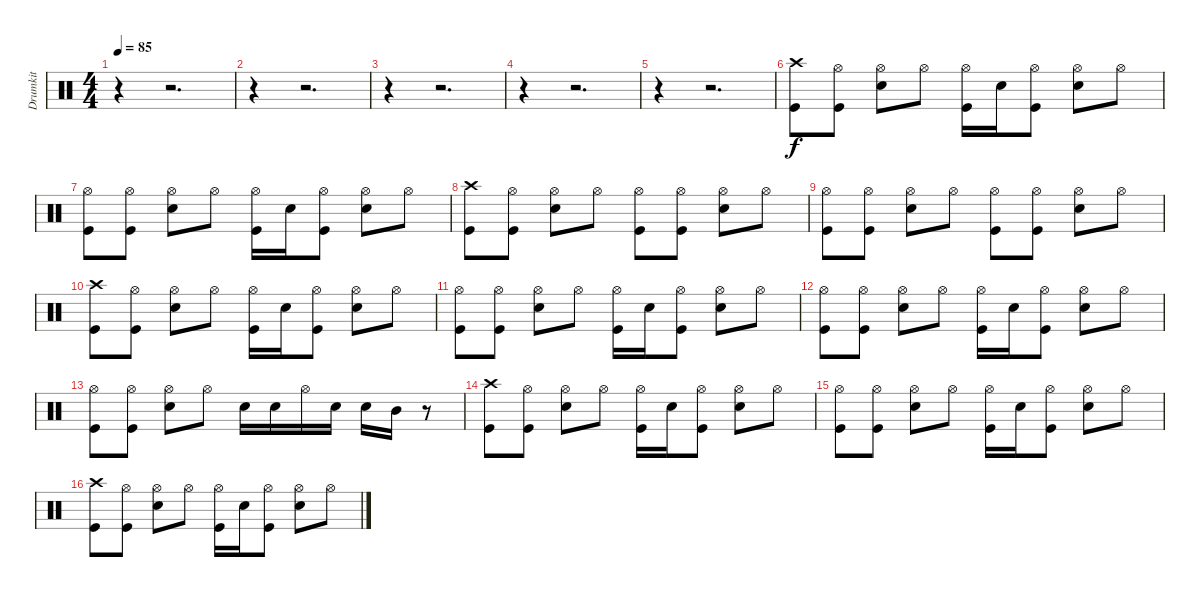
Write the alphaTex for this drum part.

\track ("Drumkit" "Drumkit") {instrument percussion}
\staff {score}
\articulation defaults
\ts (4 4)
\tempo 85
\clef neutral
\ks c
r.4{dy f} r.2{d} |
r.4 r.2{d} |
r.4 r.2{d} |
r.4 r.2{d} |
r.4 r.2{d} |
("Crash high (hit)" "Kick (hit)").8 ("Hi-Hat (open)" "Kick (hit)").8 ("Hi-Hat (open)" "Snare (hit) 2").8 "Hi-Hat (open)".8 ("Hi-Hat (open)" "Kick (hit)").16 "Snare (hit) 2".16 ("Hi-Hat (open)" "Kick (hit)").8 ("Hi-Hat (open)" "Snare (hit) 2").8 "Hi-Hat (open)".8 |
("Hi-Hat (open)" "Kick (hit)").8 ("Hi-Hat (open)" "Kick (hit)").8 ("Hi-Hat (open)" "Snare (hit) 2").8 "Hi-Hat (open)".8 ("Hi-Hat (open)" "Kick (hit)").16 "Snare (hit) 2".16 ("Hi-Hat (open)" "Kick (hit)").8 ("Hi-Hat (open)" "Snare (hit) 2").8 "Hi-Hat (open)".8 |
("Crash high (hit)" "Kick (hit)").8 ("Hi-Hat (open)" "Kick (hit)").8 ("Hi-Hat (open)" "Snare (hit) 2").8 "Hi-Hat (open)".8 ("Hi-Hat (open)" "Kick (hit)").8 ("Hi-Hat (open)" "Kick (hit)").8 ("Hi-Hat (open)" "Snare (hit) 2").8 "Hi-Hat (open)".8 |
("Hi-Hat (open)" "Kick (hit)").8 ("Hi-Hat (open)" "Kick (hit)").8 ("Hi-Hat (open)" "Snare (hit) 2").8 "Hi-Hat (open)".8 ("Hi-Hat (open)" "Kick (hit)").8 ("Hi-Hat (open)" "Kick (hit)").8 ("Hi-Hat (open)" "Snare (hit) 2").8 "Hi-Hat (open)".8 |
("Crash high (hit)" "Kick (hit)").8 ("Hi-Hat (open)" "Kick (hit)").8 ("Hi-Hat (open)" "Snare (hit) 2").8 "Hi-Hat (open)".8 ("Hi-Hat (open)" "Kick (hit)").16 "Snare (hit) 2".16 ("Hi-Hat (open)" "Kick (hit)").8 ("Hi-Hat (open)" "Snare (hit) 2").8 "Hi-Hat (open)".8 |
("Hi-Hat (open)" "Kick (hit)").8 ("Hi-Hat (open)" "Kick (hit)").8 ("Hi-Hat (open)" "Snare (hit) 2").8 "Hi-Hat (open)".8 ("Hi-Hat (open)" "Kick (hit)").16 "Snare (hit) 2".16 ("Hi-Hat (open)" "Kick (hit)").8 ("Hi-Hat (open)" "Snare (hit) 2").8 "Hi-Hat (open)".8 |
("Hi-Hat (open)" "Kick (hit)").8 ("Hi-Hat (open)" "Kick (hit)").8 ("Hi-Hat (open)" "Snare (hit) 2").8 "Hi-Hat (open)".8 ("Hi-Hat (open)" "Kick (hit)").16 "Snare (hit) 2".16 ("Hi-Hat (open)" "Kick (hit)").8 ("Hi-Hat (open)" "Snare (hit) 2").8 "Hi-Hat (open)".8 |
("Hi-Hat (open)" "Kick (hit)").8 ("Hi-Hat (open)" "Kick (hit)").8 ("Hi-Hat (open)" "Snare (hit) 2").8 "Hi-Hat (open)".8 "Snare (hit) 2".16 "Snare (hit) 2".16 "Hi-Hat (open)".16 "Snare (hit) 2".16 "Snare (hit) 2".16 "Mid Tom (hit)".16 r.8 |
("Crash high (hit)" "Kick (hit)").8 ("Hi-Hat (open)" "Kick (hit)").8 ("Hi-Hat (open)" "Snare (hit) 2").8 "Hi-Hat (open)".8 ("Hi-Hat (open)" "Kick (hit)").16 "Snare (hit) 2".16 ("Hi-Hat (open)" "Kick (hit)").8 ("Hi-Hat (open)" "Snare (hit) 2").8 "Hi-Hat (open)".8 |
("Hi-Hat (open)" "Kick (hit)").8 ("Hi-Hat (open)" "Kick (hit)").8 ("Hi-Hat (open)" "Snare (hit) 2").8 "Hi-Hat (open)".8 ("Hi-Hat (open)" "Kick (hit)").16 "Snare (hit) 2".16 ("Hi-Hat (open)" "Kick (hit)").8 ("Hi-Hat (open)" "Snare (hit) 2").8 "Hi-Hat (open)".8 |
("Crash high (hit)" "Kick (hit)").8 ("Hi-Hat (open)" "Kick (hit)").8 ("Hi-Hat (open)" "Snare (hit) 2").8 "Hi-Hat (open)".8 ("Hi-Hat (open)" "Kick (hit)").16 "Snare (hit) 2".16 ("Hi-Hat (open)" "Kick (hit)").8 ("Hi-Hat (open)" "Snare (hit) 2").8 "Hi-Hat (open)".8
